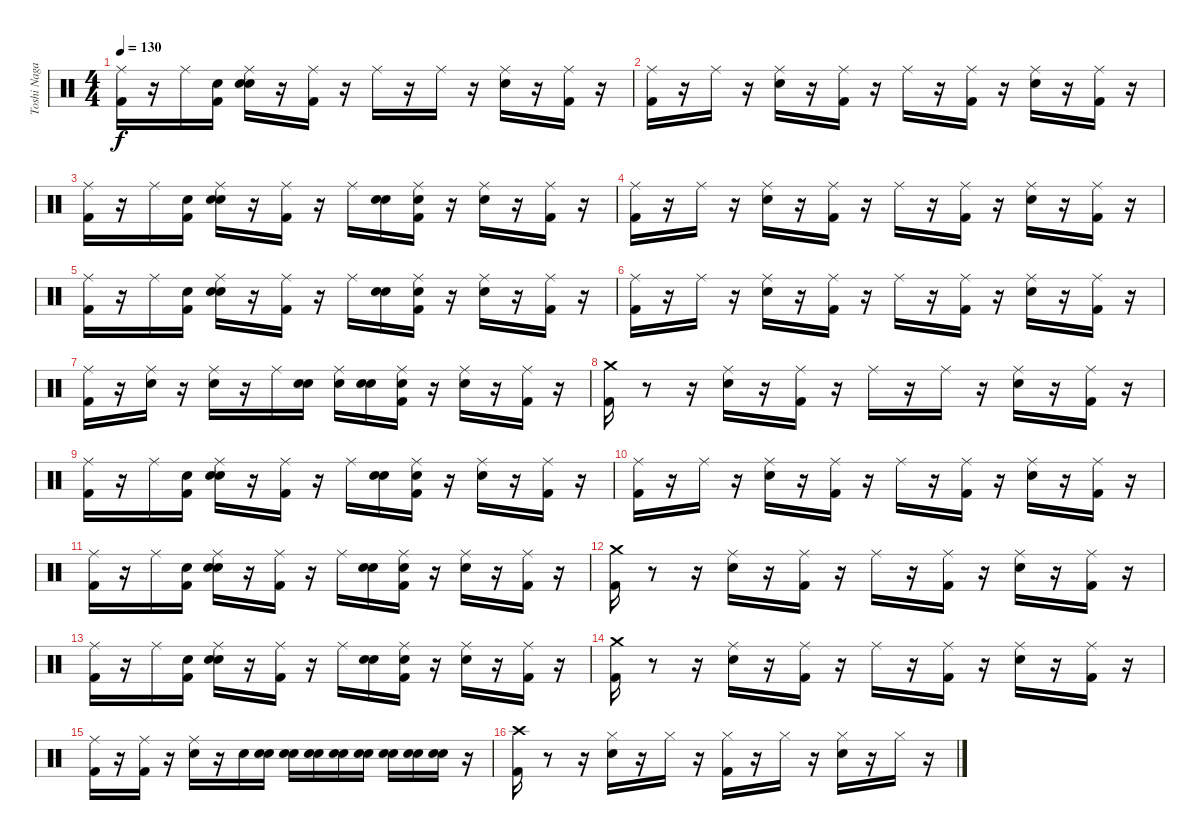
\track ("Toshi Nagai" "Toshi Naga") {instrument percussion}
\staff {score}
\articulation defaults
\ts (4 4)
\tempo 130
\clef neutral
\ks c
("Ride (middle)" "Kick (hit) 2").16{dy f} r.16 "Ride (middle)".16 ("Snare (hit)" "Kick (hit) 2").16 ("Snare (hit)" "Ride (middle)" "Electric Snare (hit)").16 r.16 ("Ride (middle)" "Kick (hit) 2").16 r.16 "Ride (middle)".16 r.16 "Ride (middle)".16 r.16 ("Electric Snare (hit)" "Ride (middle)").16 r.16 ("Kick (hit) 2" "Ride (middle)").16 r.16 |
("Kick (hit) 2" "Ride (middle)").16 r.16 "Ride (middle)".16 r.16 ("Electric Snare (hit)" "Ride (middle)").16 r.16 ("Kick (hit) 2" "Ride (middle)").16 r.16 "Ride (middle)".16 r.16 ("Kick (hit) 2" "Ride (middle)").16 r.16 ("Electric Snare (hit)" "Ride (middle)").16 r.16 ("Kick (hit) 2" "Ride (middle)").16 r.16 |
("Kick (hit) 2" "Ride (middle)").16 r.16 "Ride (middle)".16 ("Snare (hit)" "Kick (hit) 2").16 ("Snare (hit)" "Ride (middle)" "Electric Snare (hit)").16 r.16 ("Ride (middle)" "Kick (hit) 2").16 r.16 "Ride (middle)".16 ("Snare (hit)" "Electric Snare (hit)").16 ("Snare (hit)" "Kick (hit) 2" "Ride (middle)").16 r.16 ("Electric Snare (hit)" "Ride (middle)").16 r.16 ("Kick (hit) 2" "Ride (middle)").16 r.16 |
("Kick (hit) 2" "Ride (middle)").16 r.16 "Ride (middle)".16 r.16 ("Electric Snare (hit)" "Ride (middle)").16 r.16 ("Kick (hit) 2" "Ride (middle)").16 r.16 "Ride (middle)".16 r.16 ("Kick (hit) 2" "Ride (middle)").16 r.16 ("Electric Snare (hit)" "Ride (middle)").16 r.16 ("Kick (hit) 2" "Ride (middle)").16 r.16 |
("Kick (hit) 2" "Ride (middle)").16 r.16 "Ride (middle)".16 ("Snare (hit)" "Kick (hit) 2").16 ("Snare (hit)" "Ride (middle)" "Electric Snare (hit)").16 r.16 ("Ride (middle)" "Kick (hit) 2").16 r.16 "Ride (middle)".16 ("Snare (hit)" "Electric Snare (hit)").16 ("Snare (hit)" "Ride (middle)" "Kick (hit) 2").16 r.16 ("Ride (middle)" "Electric Snare (hit)").16 r.16 ("Ride (middle)" "Kick (hit) 2").16 r.16 |
("Kick (hit) 2" "Ride (middle)").16 r.16 "Ride (middle)".16 r.16 ("Electric Snare (hit)" "Ride (middle)").16 r.16 ("Kick (hit) 2" "Ride (middle)").16 r.16 "Ride (middle)".16 r.16 ("Kick (hit) 2" "Ride (middle)").16 r.16 ("Electric Snare (hit)" "Ride (middle)").16 r.16 ("Kick (hit) 2" "Ride (middle)").16 r.16 |
("Kick (hit) 2" "Ride (middle)").16 r.16 ("Electric Snare (hit)" "Ride (middle)").16 r.16 ("Electric Snare (hit)" "Ride (middle)").16 r.16 "Ride (middle)".16 ("Snare (hit)" "Electric Snare (hit)").16 ("Snare (hit)" "Ride (middle)").16 ("Snare (hit)" "Electric Snare (hit)").16 ("Snare (hit)" "Kick (hit) 2" "Ride (middle)").16 r.16 ("Ride (middle)" "Electric Snare (hit)").16 r.16 ("Ride (middle)" "Kick (hit) 2").16 r.16 |
("Kick (hit) 2" "Crash medium (hit)").16 r.8 r.16 ("Electric Snare (hit)" "Ride (middle)").16 r.16 ("Kick (hit) 2" "Ride (middle)").16 r.16 "Ride (middle)".16 r.16 "Ride (middle)".16 r.16 ("Electric Snare (hit)" "Ride (middle)").16 r.16 ("Kick (hit) 2" "Ride (middle)").16 r.16 |
("Kick (hit) 2" "Ride (middle)").16 r.16 "Ride (middle)".16 ("Snare (hit)" "Kick (hit) 2").16 ("Snare (hit)" "Ride (middle)" "Electric Snare (hit)").16 r.16 ("Ride (middle)" "Kick (hit) 2").16 r.16 "Ride (middle)".16 ("Snare (hit)" "Electric Snare (hit)").16 ("Snare (hit)" "Kick (hit) 2" "Ride (middle)").16 r.16 ("Electric Snare (hit)" "Ride (middle)").16 r.16 ("Kick (hit) 2" "Ride (middle)").16 r.16 |
("Kick (hit) 2" "Ride (middle)").16 r.16 "Ride (middle)".16 r.16 ("Electric Snare (hit)" "Ride (middle)").16 r.16 ("Kick (hit) 2" "Ride (middle)").16 r.16 "Ride (middle)".16 r.16 ("Kick (hit) 2" "Ride (middle)").16 r.16 ("Electric Snare (hit)" "Ride (middle)").16 r.16 ("Kick (hit) 2" "Ride (middle)").16 r.16 |
("Kick (hit) 2" "Ride (middle)").16 r.16 "Ride (middle)".16 ("Snare (hit)" "Kick (hit) 2").16 ("Snare (hit)" "Ride (middle)" "Electric Snare (hit)").16 r.16 ("Ride (middle)" "Kick (hit) 2").16 r.16 "Ride (middle)".16 ("Snare (hit)" "Electric Snare (hit)").16 ("Snare (hit)" "Ride (middle)" "Kick (hit) 2").16 r.16 ("Ride (middle)" "Electric Snare (hit)").16 r.16 ("Ride (middle)" "Kick (hit) 2").16 r.16 |
("Crash medium (hit)" "Kick (hit) 2").16 r.8 r.16 ("Electric Snare (hit)" "Ride (middle)").16 r.16 ("Kick (hit) 2" "Ride (middle)").16 r.16 "Ride (middle)".16 r.16 ("Kick (hit) 2" "Ride (middle)").16 r.16 ("Electric Snare (hit)" "Ride (middle)").16 r.16 ("Kick (hit) 2" "Ride (middle)").16 r.16 |
("Kick (hit) 2" "Ride (middle)").16 r.16 "Ride (middle)".16 ("Snare (hit)" "Kick (hit) 2").16 ("Snare (hit)" "Ride (middle)" "Electric Snare (hit)").16 r.16 ("Ride (middle)" "Kick (hit) 2").16 r.16 "Ride (middle)".16 ("Snare (hit)" "Electric Snare (hit)").16 ("Snare (hit)" "Ride (middle)" "Kick (hit) 2").16 r.16 ("Ride (middle)" "Electric Snare (hit)").16 r.16 ("Ride (middle)" "Kick (hit) 2").16 r.16 |
("Crash medium (hit)" "Kick (hit) 2").16 r.8 r.16 ("Electric Snare (hit)" "Ride (middle)").16 r.16 ("Kick (hit) 2" "Ride (middle)").16 r.16 "Ride (middle)".16 r.16 ("Kick (hit) 2" "Ride (middle)").16 r.16 ("Electric Snare (hit)" "Ride (middle)").16 r.16 ("Kick (hit) 2" "Ride (middle)").16 r.16 |
("Kick (hit) 2" "Ride (middle)").16 r.16 ("Kick (hit) 2" "Ride (middle)").16 r.16 ("Electric Snare (hit)" "Ride (middle)").16 r.16 "Electric Snare (hit)".16 ("Snare (hit)" "Electric Snare (hit)").16 ("Snare (hit)" "Electric Snare (hit)").16 ("Snare (hit)" "Electric Snare (hit)").16 ("Snare (hit)" "Electric Snare (hit)").16 ("Snare (hit)" "Electric Snare (hit)").16 ("Snare (hit)" "Electric Snare (hit)").16 ("Snare (hit)" "Electric Snare (hit)").16 ("Snare (hit)" "Electric Snare (hit)").16 r.16 |
("Kick (hit) 2" "Crash high (hit)").16 r.8 r.16 ("Electric Snare (hit)" "Hi-Hat (closed)").16 r.16 "Hi-Hat (closed)".16 r.16 ("Kick (hit) 2" "Hi-Hat (closed)").16 r.16 "Hi-Hat (closed)".16 r.16 ("Electric Snare (hit)" "Hi-Hat (closed)").16 r.16 "Hi-Hat (closed)".16 r.16
